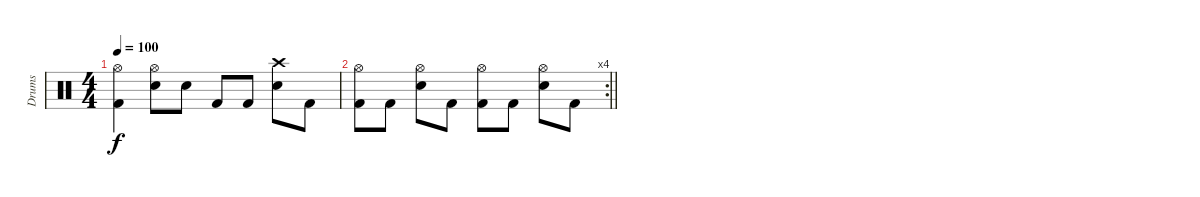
\track ("Drums" "Drums") {instrument percussion}
\staff {score}
\articulation defaults
\ts (4 4)
\tempo 100
\clef neutral
\ks c
("Hi-Hat (open)" "Kick (hit) 2").4{dy f} ("Hi-Hat (open)" "Electric Snare (hit)").8 "Electric Snare (hit)".8 "Kick (hit) 2".8 "Kick (hit) 2".8 ("Crash high (hit)" "Electric Snare (hit)").8 "Kick (hit) 2".8 |
\rc 4
\barLineRight lightlight
("Hi-Hat (open)" "Kick (hit) 2").8 "Kick (hit) 2".8 ("Hi-Hat (open)" "Electric Snare (hit)").8 "Kick (hit) 2".8 ("Hi-Hat (open)" "Kick (hit) 2").8 "Kick (hit) 2".8 ("Hi-Hat (open)" "Electric Snare (hit)").8 "Kick (hit) 2".8
